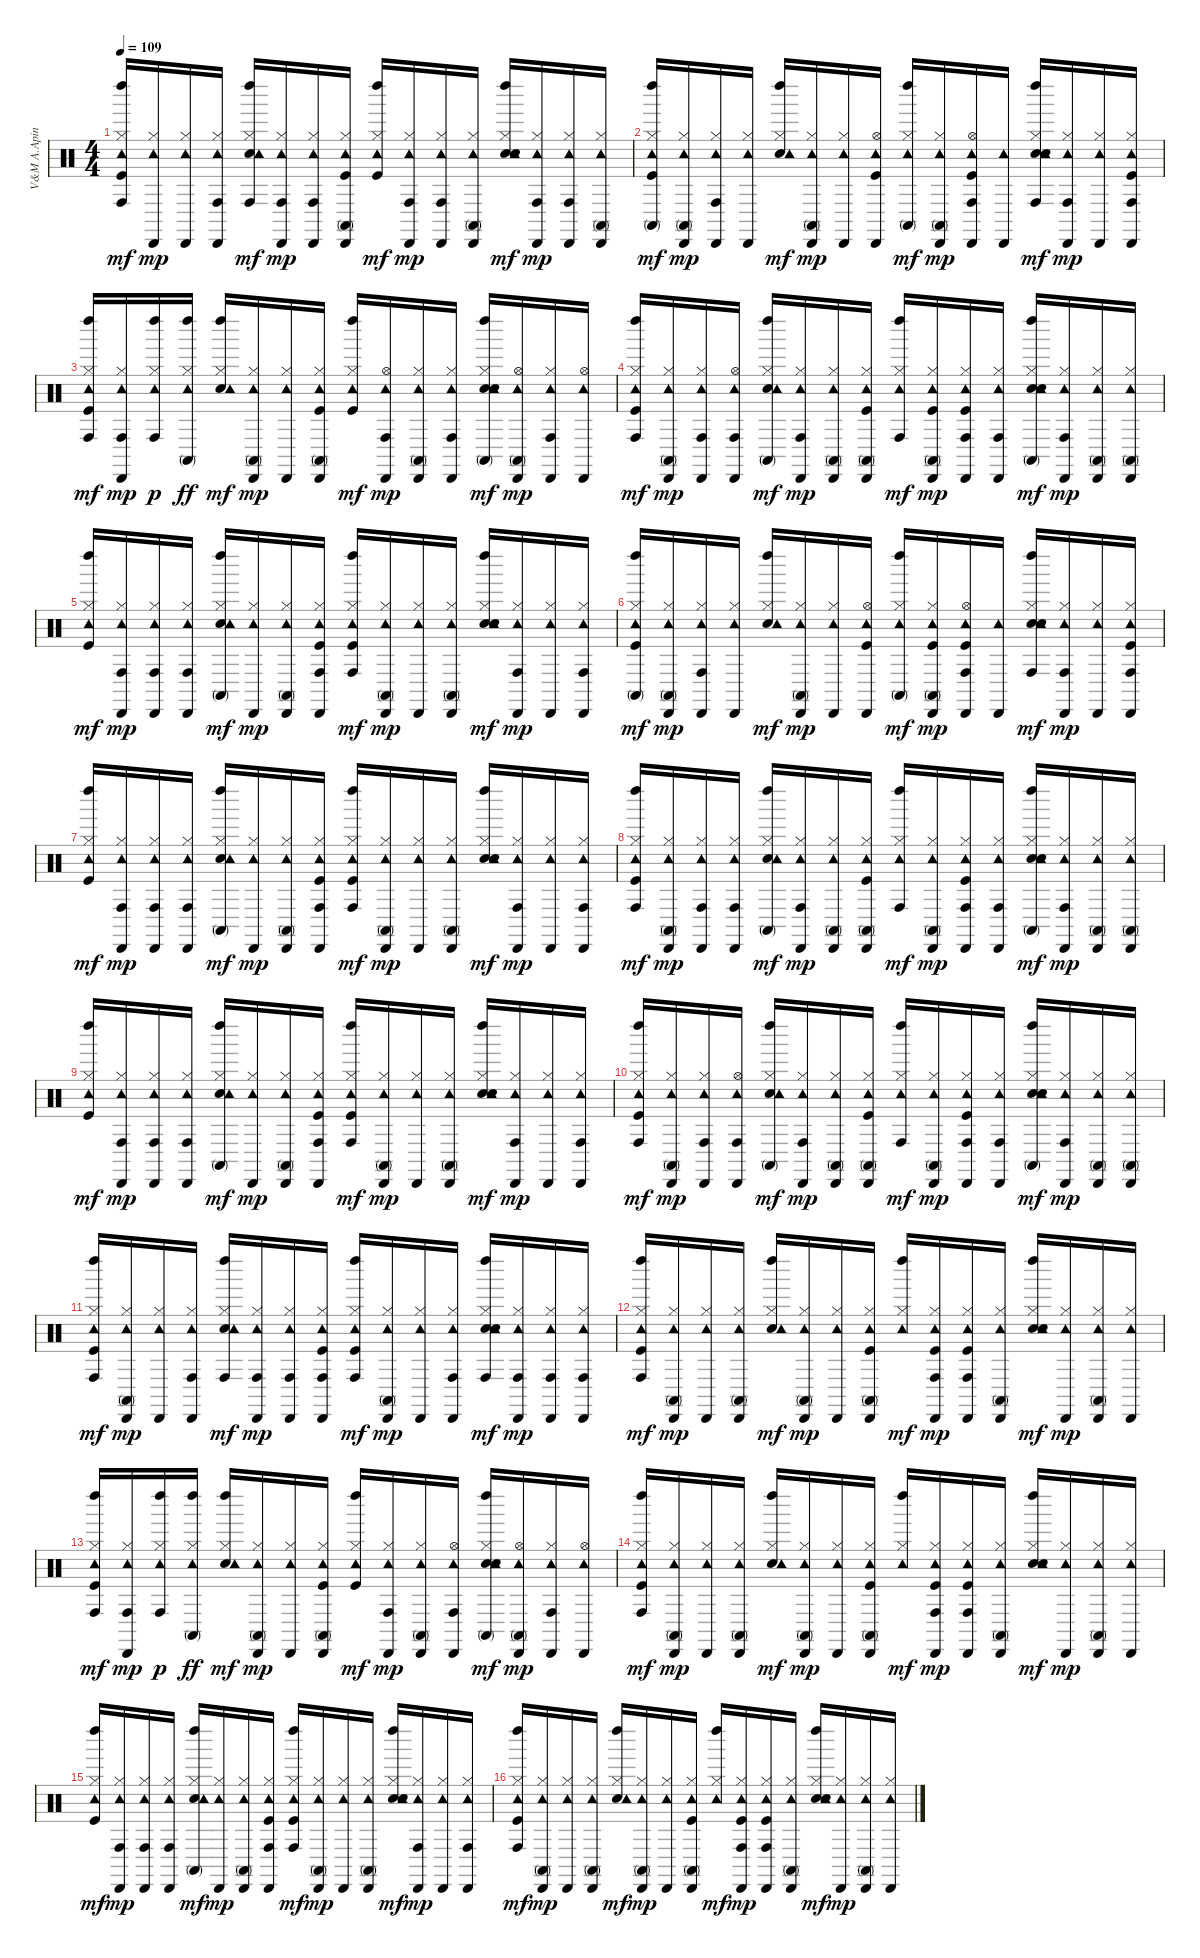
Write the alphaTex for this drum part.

\track ("V&M A.Apin" "V&M A.Apin") {instrument percussion}
\staff {score}
\articulation defaults
\ts (4 4)
\tempo 109
\clef neutral
\ks c
("Kick (hit)" "Hi-Hat (closed)" "Conga high (hit)" "Tambourine (hit)" "Left Maraca (hit)").16{dy mf} ("Hi-Hat (closed)" "Tambourine (hit)" "Cabasa (hit)").16{dy mp} ("Hi-Hat (closed)" "Tambourine (hit)" "Cabasa (hit)").16 ("Hi-Hat (closed)" "Conga high (hit)" "Tambourine (hit)" "Cabasa (hit)").16 ("Snare (hit) 2" "Hi-Hat (closed)" "Conga high (hit)" "Tambourine (hit)" "Left Maraca (hit)").16{dy mf} ("Hi-Hat (closed)" "Conga high (hit)" "Tambourine (hit)" "Cabasa (hit)").16{dy mp} ("Hi-Hat (closed)" "Conga high (hit)" "Tambourine (hit)" "Cabasa (hit)").16 ("Kick (hit)" "Hi-Hat (closed)" "Conga high (mute)" "Tambourine (hit)" "Cabasa (hit)").16 ("Kick (hit)" "Hi-Hat (closed)" "Tambourine (hit)" "Left Maraca (hit)").16{dy mf} ("Hi-Hat (closed)" "Conga high (hit)" "Tambourine (hit)" "Cabasa (hit)").16{dy mp} ("Hi-Hat (closed)" "Conga high (hit)" "Tambourine (hit)" "Cabasa (hit)").16 ("Hi-Hat (closed)" "Conga high (mute)" "Tambourine (hit)" "Cabasa (hit)").16 ("Snare (hit) 2" "Hi-Hat (closed)" "Tambourine (hit)" "Hand Clap (hit)" "Left Maraca (hit)").16{dy mf} ("Hi-Hat (closed)" "Conga high (hit)" "Tambourine (hit)" "Cabasa (hit)").16{dy mp} ("Hi-Hat (closed)" "Conga high (hit)" "Tambourine (hit)" "Cabasa (hit)").16 ("Hi-Hat (closed)" "Conga high (mute)" "Tambourine (hit)" "Cabasa (hit)").16 |
("Kick (hit)" "Hi-Hat (closed)" "Conga high (mute)" "Tambourine (hit)" "Left Maraca (hit)").16{dy mf} ("Hi-Hat (closed)" "Conga high (mute)" "Tambourine (hit)" "Cabasa (hit)").16{dy mp} ("Hi-Hat (closed)" "Conga high (hit)" "Tambourine (hit)" "Cabasa (hit)").16 ("Hi-Hat (closed)" "Tambourine (hit)" "Cabasa (hit)").16 ("Snare (hit) 2" "Hi-Hat (closed)" "Tambourine (hit)" "Left Maraca (hit)").16{dy mf} ("Hi-Hat (closed)" "Conga high (mute)" "Tambourine (hit)" "Cabasa (hit)").16{dy mp} ("Hi-Hat (closed)" "Tambourine (hit)" "Cabasa (hit)").16 ("Kick (hit)" "Hi-Hat (open)" "Tambourine (hit)" "Cabasa (hit)").16 ("Hi-Hat (closed)" "Conga high (mute)" "Tambourine (hit)" "Left Maraca (hit)").16{dy mf} ("Hi-Hat (closed)" "Conga high (mute)" "Tambourine (hit)" "Cabasa (hit)").16{dy mp} ("Kick (hit)" "Hi-Hat (open)" "Conga high (hit)" "Tambourine (hit)" "Cabasa (hit)").16 ("Tambourine (hit)" "Cabasa (hit)").16 ("Snare (hit) 2" "Hi-Hat (closed)" "Conga high (hit)" "Tambourine (hit)" "Hand Clap (hit)" "Left Maraca (hit)").16{dy mf} ("Hi-Hat (closed)" "Conga high (hit)" "Tambourine (hit)" "Cabasa (hit)").16{dy mp} ("Hi-Hat (closed)" "Tambourine (hit)" "Cabasa (hit)").16 ("Kick (hit)" "Hi-Hat (closed)" "Conga high (hit)" "Tambourine (hit)" "Cabasa (hit)").16 |
("Kick (hit)" "Hi-Hat (closed)" "Conga high (hit)" "Tambourine (hit)" "Left Maraca (hit)").16{dy mf} ("Hi-Hat (closed)" "Conga high (hit)" "Tambourine (hit)" "Cabasa (hit)").16{dy mp} ("Hi-Hat (closed)" "Conga high (hit)" "Tambourine (hit)" "Left Maraca (hit)").16{dy p} ("Hi-Hat (closed)" "Conga high (mute)" "Tambourine (hit)" "Left Maraca (hit)").16{dy ff} ("Snare (hit) 2" "Hi-Hat (closed)" "Tambourine (hit)" "Left Maraca (hit)").16{dy mf} ("Hi-Hat (closed)" "Conga high (mute)" "Tambourine (hit)" "Cabasa (hit)").16{dy mp} ("Hi-Hat (closed)" "Tambourine (hit)" "Cabasa (hit)").16 ("Kick (hit)" "Hi-Hat (closed)" "Conga high (mute)" "Tambourine (hit)" "Cabasa (hit)").16 ("Kick (hit)" "Hi-Hat (closed)" "Tambourine (hit)" "Left Maraca (hit)").16{dy mf} ("Hi-Hat (open)" "Conga high (hit)" "Tambourine (hit)" "Cabasa (hit)").16{dy mp} ("Hi-Hat (closed)" "Conga high (mute)" "Tambourine (hit)" "Cabasa (hit)").16 ("Hi-Hat (closed)" "Conga high (hit)" "Tambourine (hit)" "Cabasa (hit)").16 ("Snare (hit) 2" "Hi-Hat (closed)" "Conga high (mute)" "Tambourine (hit)" "Hand Clap (hit)" "Left Maraca (hit)").16{dy mf} ("Hi-Hat (open)" "Conga high (mute)" "Tambourine (hit)" "Cabasa (hit)").16{dy mp} ("Hi-Hat (closed)" "Conga high (hit)" "Tambourine (hit)" "Cabasa (hit)").16 ("Hi-Hat (open)" "Tambourine (hit)" "Cabasa (hit)").16 |
("Kick (hit)" "Hi-Hat (closed)" "Conga high (hit)" "Tambourine (hit)" "Left Maraca (hit)").16{dy mf} ("Hi-Hat (closed)" "Conga high (mute)" "Tambourine (hit)" "Cabasa (hit)").16{dy mp} ("Hi-Hat (closed)" "Conga high (hit)" "Tambourine (hit)" "Cabasa (hit)").16 ("Hi-Hat (open)" "Conga high (hit)" "Tambourine (hit)" "Cabasa (hit)").16 ("Snare (hit) 2" "Hi-Hat (closed)" "Conga high (mute)" "Tambourine (hit)" "Left Maraca (hit)").16{dy mf} ("Hi-Hat (closed)" "Conga high (hit)" "Tambourine (hit)" "Cabasa (hit)").16{dy mp} ("Hi-Hat (closed)" "Conga high (mute)" "Tambourine (hit)" "Cabasa (hit)").16 ("Kick (hit)" "Hi-Hat (closed)" "Conga high (mute)" "Tambourine (hit)" "Cabasa (hit)").16 ("Hi-Hat (closed)" "Conga high (hit)" "Tambourine (hit)" "Left Maraca (hit)").16{dy mf} ("Kick (hit)" "Hi-Hat (closed)" "Conga high (mute)" "Tambourine (hit)" "Cabasa (hit)").16{dy mp} ("Kick (hit)" "Hi-Hat (closed)" "Conga high (hit)" "Tambourine (hit)" "Cabasa (hit)").16 ("Hi-Hat (closed)" "Conga high (hit)" "Tambourine (hit)" "Cabasa (hit)").16 ("Snare (hit) 2" "Hi-Hat (closed)" "Conga high (mute)" "Tambourine (hit)" "Hand Clap (hit)" "Left Maraca (hit)").16{dy mf} ("Hi-Hat (closed)" "Conga high (hit)" "Tambourine (hit)" "Cabasa (hit)").16{dy mp} ("Hi-Hat (closed)" "Conga high (mute)" "Tambourine (hit)" "Cabasa (hit)").16 ("Hi-Hat (closed)" "Conga high (mute)" "Tambourine (hit)" "Cabasa (hit)").16 |
("Kick (hit)" "Hi-Hat (closed)" "Tambourine (hit)" "Left Maraca (hit)").16{dy mf} ("Hi-Hat (closed)" "Conga high (hit)" "Tambourine (hit)" "Cabasa (hit)").16{dy mp} ("Hi-Hat (closed)" "Conga high (hit)" "Tambourine (hit)" "Cabasa (hit)").16 ("Hi-Hat (closed)" "Conga high (hit)" "Tambourine (hit)" "Cabasa (hit)").16 ("Snare (hit) 2" "Hi-Hat (closed)" "Conga high (mute)" "Tambourine (hit)" "Left Maraca (hit)").16{dy mf} ("Hi-Hat (closed)" "Tambourine (hit)" "Cabasa (hit)").16{dy mp} ("Hi-Hat (closed)" "Conga high (mute)" "Tambourine (hit)" "Cabasa (hit)").16 ("Kick (hit)" "Hi-Hat (closed)" "Conga high (hit)" "Tambourine (hit)" "Cabasa (hit)").16 ("Kick (hit)" "Hi-Hat (closed)" "Conga high (hit)" "Tambourine (hit)" "Left Maraca (hit)").16{dy mf} ("Hi-Hat (closed)" "Conga high (mute)" "Tambourine (hit)" "Cabasa (hit)").16{dy mp} ("Hi-Hat (closed)" "Tambourine (hit)" "Cabasa (hit)").16 ("Hi-Hat (closed)" "Conga high (mute)" "Tambourine (hit)" "Cabasa (hit)").16 ("Snare (hit) 2" "Hi-Hat (closed)" "Tambourine (hit)" "Hand Clap (hit)" "Left Maraca (hit)").16{dy mf} ("Hi-Hat (closed)" "Conga high (hit)" "Tambourine (hit)" "Cabasa (hit)").16{dy mp} ("Hi-Hat (closed)" "Tambourine (hit)" "Cabasa (hit)").16 ("Hi-Hat (closed)" "Conga high (hit)" "Tambourine (hit)" "Cabasa (hit)").16 |
("Kick (hit)" "Hi-Hat (closed)" "Conga high (mute)" "Tambourine (hit)" "Left Maraca (hit)").16{dy mf} ("Hi-Hat (closed)" "Conga high (mute)" "Tambourine (hit)" "Cabasa (hit)").16{dy mp} ("Hi-Hat (closed)" "Conga high (hit)" "Tambourine (hit)" "Cabasa (hit)").16 ("Hi-Hat (closed)" "Tambourine (hit)" "Cabasa (hit)").16 ("Snare (hit) 2" "Hi-Hat (closed)" "Tambourine (hit)" "Left Maraca (hit)").16{dy mf} ("Hi-Hat (closed)" "Conga high (mute)" "Tambourine (hit)" "Cabasa (hit)").16{dy mp} ("Hi-Hat (closed)" "Tambourine (hit)" "Cabasa (hit)").16 ("Kick (hit)" "Hi-Hat (open)" "Tambourine (hit)" "Cabasa (hit)").16 ("Hi-Hat (closed)" "Conga high (mute)" "Tambourine (hit)" "Left Maraca (hit)").16{dy mf} ("Kick (hit)" "Hi-Hat (closed)" "Conga high (mute)" "Tambourine (hit)" "Cabasa (hit)").16{dy mp} ("Kick (hit)" "Hi-Hat (open)" "Conga high (hit)" "Tambourine (hit)" "Cabasa (hit)").16 ("Tambourine (hit)" "Cabasa (hit)").16 ("Snare (hit) 2" "Hi-Hat (closed)" "Conga high (hit)" "Tambourine (hit)" "Hand Clap (hit)" "Left Maraca (hit)").16{dy mf} ("Hi-Hat (closed)" "Conga high (hit)" "Tambourine (hit)" "Cabasa (hit)").16{dy mp} ("Hi-Hat (closed)" "Tambourine (hit)" "Cabasa (hit)").16 ("Kick (hit)" "Hi-Hat (closed)" "Conga high (hit)" "Tambourine (hit)" "Cabasa (hit)").16 |
("Kick (hit)" "Hi-Hat (closed)" "Tambourine (hit)" "Left Maraca (hit)").16{dy mf} ("Hi-Hat (closed)" "Conga high (hit)" "Tambourine (hit)" "Cabasa (hit)").16{dy mp} ("Hi-Hat (closed)" "Conga high (hit)" "Tambourine (hit)" "Cabasa (hit)").16 ("Hi-Hat (closed)" "Conga high (hit)" "Tambourine (hit)" "Cabasa (hit)").16 ("Snare (hit) 2" "Hi-Hat (closed)" "Conga high (mute)" "Tambourine (hit)" "Left Maraca (hit)").16{dy mf} ("Hi-Hat (closed)" "Tambourine (hit)" "Cabasa (hit)").16{dy mp} ("Hi-Hat (closed)" "Conga high (mute)" "Tambourine (hit)" "Cabasa (hit)").16 ("Kick (hit)" "Hi-Hat (closed)" "Conga high (hit)" "Tambourine (hit)" "Cabasa (hit)").16 ("Kick (hit)" "Hi-Hat (closed)" "Conga high (hit)" "Tambourine (hit)" "Left Maraca (hit)").16{dy mf} ("Hi-Hat (closed)" "Conga high (mute)" "Tambourine (hit)" "Cabasa (hit)").16{dy mp} ("Hi-Hat (closed)" "Tambourine (hit)" "Cabasa (hit)").16 ("Hi-Hat (closed)" "Conga high (mute)" "Tambourine (hit)" "Cabasa (hit)").16 ("Snare (hit) 2" "Hi-Hat (closed)" "Tambourine (hit)" "Hand Clap (hit)" "Left Maraca (hit)").16{dy mf} ("Hi-Hat (closed)" "Conga high (hit)" "Tambourine (hit)" "Cabasa (hit)").16{dy mp} ("Hi-Hat (closed)" "Tambourine (hit)" "Cabasa (hit)").16 ("Hi-Hat (closed)" "Conga high (hit)" "Tambourine (hit)" "Cabasa (hit)").16 |
("Kick (hit)" "Hi-Hat (closed)" "Conga high (hit)" "Tambourine (hit)" "Left Maraca (hit)").16{dy mf} ("Hi-Hat (closed)" "Conga high (mute)" "Tambourine (hit)" "Cabasa (hit)").16{dy mp} ("Hi-Hat (closed)" "Conga high (hit)" "Tambourine (hit)" "Cabasa (hit)").16 ("Hi-Hat (closed)" "Conga high (hit)" "Tambourine (hit)" "Cabasa (hit)").16 ("Snare (hit) 2" "Hi-Hat (closed)" "Conga high (mute)" "Tambourine (hit)" "Left Maraca (hit)").16{dy mf} ("Hi-Hat (closed)" "Conga high (hit)" "Tambourine (hit)" "Cabasa (hit)").16{dy mp} ("Hi-Hat (closed)" "Conga high (mute)" "Tambourine (hit)" "Cabasa (hit)").16 ("Kick (hit)" "Hi-Hat (closed)" "Conga high (mute)" "Tambourine (hit)" "Cabasa (hit)").16 ("Hi-Hat (closed)" "Conga high (hit)" "Tambourine (hit)" "Left Maraca (hit)").16{dy mf} ("Hi-Hat (closed)" "Conga high (mute)" "Tambourine (hit)" "Cabasa (hit)").16{dy mp} ("Kick (hit)" "Hi-Hat (closed)" "Conga high (hit)" "Tambourine (hit)" "Cabasa (hit)").16 ("Hi-Hat (closed)" "Conga high (hit)" "Tambourine (hit)" "Cabasa (hit)").16 ("Snare (hit) 2" "Hi-Hat (closed)" "Conga high (mute)" "Tambourine (hit)" "Hand Clap (hit)" "Left Maraca (hit)").16{dy mf} ("Hi-Hat (closed)" "Conga high (hit)" "Tambourine (hit)" "Cabasa (hit)").16{dy mp} ("Hi-Hat (closed)" "Conga high (mute)" "Tambourine (hit)" "Cabasa (hit)").16 ("Hi-Hat (closed)" "Conga high (mute)" "Tambourine (hit)" "Cabasa (hit)").16 |
("Kick (hit)" "Hi-Hat (closed)" "Tambourine (hit)" "Left Maraca (hit)").16{dy mf} ("Hi-Hat (closed)" "Conga high (hit)" "Tambourine (hit)" "Cabasa (hit)").16{dy mp} ("Hi-Hat (closed)" "Conga high (hit)" "Tambourine (hit)" "Cabasa (hit)").16 ("Hi-Hat (closed)" "Conga high (hit)" "Tambourine (hit)" "Cabasa (hit)").16 ("Snare (hit) 2" "Hi-Hat (closed)" "Conga high (mute)" "Tambourine (hit)" "Left Maraca (hit)").16{dy mf} ("Hi-Hat (closed)" "Tambourine (hit)" "Cabasa (hit)").16{dy mp} ("Hi-Hat (closed)" "Conga high (mute)" "Tambourine (hit)" "Cabasa (hit)").16 ("Kick (hit)" "Hi-Hat (closed)" "Conga high (hit)" "Tambourine (hit)" "Cabasa (hit)").16 ("Kick (hit)" "Hi-Hat (closed)" "Conga high (hit)" "Tambourine (hit)" "Left Maraca (hit)").16{dy mf} ("Hi-Hat (closed)" "Conga high (mute)" "Tambourine (hit)" "Cabasa (hit)").16{dy mp} ("Hi-Hat (closed)" "Tambourine (hit)" "Cabasa (hit)").16 ("Hi-Hat (closed)" "Conga high (mute)" "Tambourine (hit)" "Cabasa (hit)").16 ("Snare (hit) 2" "Hi-Hat (closed)" "Tambourine (hit)" "Hand Clap (hit)" "Left Maraca (hit)").16{dy mf} ("Hi-Hat (closed)" "Conga high (hit)" "Tambourine (hit)" "Cabasa (hit)").16{dy mp} ("Hi-Hat (closed)" "Tambourine (hit)" "Cabasa (hit)").16 ("Hi-Hat (closed)" "Conga high (hit)" "Tambourine (hit)" "Cabasa (hit)").16 |
("Kick (hit)" "Hi-Hat (closed)" "Conga high (hit)" "Tambourine (hit)" "Left Maraca (hit)").16{dy mf} ("Hi-Hat (closed)" "Conga high (mute)" "Tambourine (hit)" "Cabasa (hit)").16{dy mp} ("Hi-Hat (closed)" "Conga high (hit)" "Tambourine (hit)" "Cabasa (hit)").16 ("Hi-Hat (open)" "Conga high (hit)" "Tambourine (hit)" "Cabasa (hit)").16 ("Snare (hit) 2" "Hi-Hat (closed)" "Conga high (mute)" "Tambourine (hit)" "Left Maraca (hit)").16{dy mf} ("Hi-Hat (closed)" "Conga high (hit)" "Tambourine (hit)" "Cabasa (hit)").16{dy mp} ("Hi-Hat (closed)" "Conga high (mute)" "Tambourine (hit)" "Cabasa (hit)").16 ("Kick (hit)" "Hi-Hat (closed)" "Conga high (mute)" "Tambourine (hit)" "Cabasa (hit)").16 ("Hi-Hat (closed)" "Conga high (hit)" "Tambourine (hit)" "Left Maraca (hit)").16{dy mf} ("Hi-Hat (closed)" "Conga high (mute)" "Tambourine (hit)" "Cabasa (hit)").16{dy mp} ("Kick (hit)" "Hi-Hat (closed)" "Conga high (hit)" "Tambourine (hit)" "Cabasa (hit)").16 ("Hi-Hat (closed)" "Conga high (hit)" "Tambourine (hit)" "Cabasa (hit)").16 ("Snare (hit) 2" "Hi-Hat (closed)" "Conga high (mute)" "Tambourine (hit)" "Hand Clap (hit)" "Left Maraca (hit)").16{dy mf} ("Hi-Hat (closed)" "Conga high (hit)" "Tambourine (hit)" "Cabasa (hit)").16{dy mp} ("Hi-Hat (closed)" "Conga high (mute)" "Tambourine (hit)" "Cabasa (hit)").16 ("Hi-Hat (closed)" "Conga high (mute)" "Tambourine (hit)" "Cabasa (hit)").16 |
("Kick (hit)" "Hi-Hat (closed)" "Conga high (hit)" "Tambourine (hit)" "Left Maraca (hit)").16{dy mf} ("Hi-Hat (closed)" "Conga high (mute)" "Tambourine (hit)" "Cabasa (hit)").16{dy mp} ("Hi-Hat (closed)" "Tambourine (hit)" "Cabasa (hit)").16 ("Hi-Hat (closed)" "Conga high (hit)" "Tambourine (hit)" "Cabasa (hit)").16 ("Snare (hit) 2" "Hi-Hat (closed)" "Conga high (hit)" "Tambourine (hit)" "Left Maraca (hit)").16{dy mf} ("Hi-Hat (closed)" "Conga high (hit)" "Tambourine (hit)" "Cabasa (hit)").16{dy mp} ("Hi-Hat (closed)" "Conga high (hit)" "Tambourine (hit)" "Cabasa (hit)").16 ("Kick (hit)" "Hi-Hat (closed)" "Conga high (hit)" "Tambourine (hit)" "Cabasa (hit)").16 ("Kick (hit)" "Hi-Hat (closed)" "Conga high (hit)" "Tambourine (hit)" "Left Maraca (hit)").16{dy mf} ("Hi-Hat (closed)" "Conga high (mute)" "Tambourine (hit)" "Cabasa (hit)").16{dy mp} ("Hi-Hat (closed)" "Tambourine (hit)" "Cabasa (hit)").16 ("Hi-Hat (closed)" "Conga high (hit)" "Tambourine (hit)" "Cabasa (hit)").16 ("Snare (hit) 2" "Hi-Hat (closed)" "Conga high (hit)" "Tambourine (hit)" "Hand Clap (hit)" "Left Maraca (hit)").16{dy mf} ("Hi-Hat (closed)" "Conga high (hit)" "Tambourine (hit)" "Cabasa (hit)").16{dy mp} ("Hi-Hat (closed)" "Conga high (hit)" "Tambourine (hit)" "Cabasa (hit)").16 ("Hi-Hat (closed)" "Conga high (hit)" "Tambourine (hit)" "Cabasa (hit)").16 |
("Kick (hit)" "Hi-Hat (closed)" "Conga high (hit)" "Tambourine (hit)" "Left Maraca (hit)").16{dy mf} ("Hi-Hat (closed)" "Conga high (mute)" "Tambourine (hit)" "Cabasa (hit)").16{dy mp} ("Hi-Hat (closed)" "Tambourine (hit)" "Cabasa (hit)").16 ("Hi-Hat (closed)" "Conga high (mute)" "Tambourine (hit)" "Cabasa (hit)").16 ("Snare (hit) 2" "Hi-Hat (closed)" "Tambourine (hit)" "Left Maraca (hit)").16{dy mf} ("Hi-Hat (closed)" "Conga high (mute)" "Tambourine (hit)" "Cabasa (hit)").16{dy mp} ("Hi-Hat (closed)" "Tambourine (hit)" "Cabasa (hit)").16 ("Kick (hit)" "Hi-Hat (closed)" "Conga high (mute)" "Tambourine (hit)" "Cabasa (hit)").16 ("Hi-Hat (closed)" "Tambourine (hit)" "Left Maraca (hit)").16{dy mf} ("Kick (hit)" "Hi-Hat (closed)" "Conga high (hit)" "Tambourine (hit)" "Cabasa (hit)").16{dy mp} ("Kick (hit)" "Hi-Hat (closed)" "Conga high (hit)" "Tambourine (hit)" "Cabasa (hit)").16 ("Hi-Hat (closed)" "Conga high (mute)" "Tambourine (hit)" "Cabasa (hit)").16 ("Snare (hit) 2" "Hi-Hat (closed)" "Tambourine (hit)" "Hand Clap (hit)" "Left Maraca (hit)").16{dy mf} ("Hi-Hat (closed)" "Tambourine (hit)" "Cabasa (hit)").16{dy mp} ("Hi-Hat (closed)" "Conga high (mute)" "Tambourine (hit)" "Cabasa (hit)").16 ("Hi-Hat (closed)" "Tambourine (hit)" "Cabasa (hit)").16 |
("Kick (hit)" "Hi-Hat (closed)" "Conga high (hit)" "Tambourine (hit)" "Left Maraca (hit)").16{dy mf} ("Hi-Hat (closed)" "Conga high (hit)" "Tambourine (hit)" "Cabasa (hit)").16{dy mp} ("Hi-Hat (closed)" "Conga high (hit)" "Tambourine (hit)" "Left Maraca (hit)").16{dy p} ("Hi-Hat (closed)" "Conga high (mute)" "Tambourine (hit)" "Left Maraca (hit)").16{dy ff} ("Snare (hit) 2" "Hi-Hat (closed)" "Tambourine (hit)" "Left Maraca (hit)").16{dy mf} ("Hi-Hat (closed)" "Conga high (mute)" "Tambourine (hit)" "Cabasa (hit)").16{dy mp} ("Hi-Hat (closed)" "Tambourine (hit)" "Cabasa (hit)").16 ("Kick (hit)" "Hi-Hat (closed)" "Conga high (mute)" "Tambourine (hit)" "Cabasa (hit)").16 ("Kick (hit)" "Hi-Hat (closed)" "Tambourine (hit)" "Left Maraca (hit)").16{dy mf} ("Hi-Hat (closed)" "Conga high (hit)" "Tambourine (hit)" "Cabasa (hit)").16{dy mp} ("Hi-Hat (closed)" "Conga high (mute)" "Tambourine (hit)" "Cabasa (hit)").16 ("Hi-Hat (open)" "Conga high (hit)" "Tambourine (hit)" "Cabasa (hit)").16 ("Snare (hit) 2" "Hi-Hat (closed)" "Conga high (mute)" "Tambourine (hit)" "Hand Clap (hit)" "Left Maraca (hit)").16{dy mf} ("Hi-Hat (open)" "Conga high (mute)" "Tambourine (hit)" "Cabasa (hit)").16{dy mp} ("Hi-Hat (closed)" "Conga high (hit)" "Tambourine (hit)" "Cabasa (hit)").16 ("Hi-Hat (open)" "Tambourine (hit)" "Cabasa (hit)").16 |
("Kick (hit)" "Hi-Hat (closed)" "Conga high (hit)" "Tambourine (hit)" "Left Maraca (hit)").16{dy mf} ("Hi-Hat (closed)" "Conga high (mute)" "Tambourine (hit)" "Cabasa (hit)").16{dy mp} ("Hi-Hat (closed)" "Tambourine (hit)" "Cabasa (hit)").16 ("Hi-Hat (closed)" "Conga high (mute)" "Tambourine (hit)" "Cabasa (hit)").16 ("Snare (hit) 2" "Hi-Hat (closed)" "Tambourine (hit)" "Left Maraca (hit)").16{dy mf} ("Hi-Hat (closed)" "Conga high (mute)" "Tambourine (hit)" "Cabasa (hit)").16{dy mp} ("Hi-Hat (closed)" "Tambourine (hit)" "Cabasa (hit)").16 ("Kick (hit)" "Hi-Hat (closed)" "Conga high (mute)" "Tambourine (hit)" "Cabasa (hit)").16 ("Hi-Hat (closed)" "Tambourine (hit)" "Left Maraca (hit)").16{dy mf} ("Kick (hit)" "Hi-Hat (closed)" "Conga high (hit)" "Tambourine (hit)" "Cabasa (hit)").16{dy mp} ("Kick (hit)" "Hi-Hat (closed)" "Conga high (hit)" "Tambourine (hit)" "Cabasa (hit)").16 ("Hi-Hat (closed)" "Conga high (mute)" "Tambourine (hit)" "Cabasa (hit)").16 ("Snare (hit) 2" "Hi-Hat (closed)" "Tambourine (hit)" "Hand Clap (hit)" "Left Maraca (hit)").16{dy mf} ("Hi-Hat (closed)" "Tambourine (hit)" "Cabasa (hit)").16{dy mp} ("Hi-Hat (closed)" "Conga high (mute)" "Tambourine (hit)" "Cabasa (hit)").16 ("Hi-Hat (closed)" "Tambourine (hit)" "Cabasa (hit)").16 |
("Kick (hit)" "Hi-Hat (closed)" "Tambourine (hit)" "Left Maraca (hit)").16{dy mf} ("Hi-Hat (closed)" "Conga high (hit)" "Tambourine (hit)" "Cabasa (hit)").16{dy mp} ("Hi-Hat (closed)" "Conga high (hit)" "Tambourine (hit)" "Cabasa (hit)").16 ("Hi-Hat (closed)" "Conga high (hit)" "Tambourine (hit)" "Cabasa (hit)").16 ("Snare (hit) 2" "Hi-Hat (closed)" "Conga high (mute)" "Tambourine (hit)" "Left Maraca (hit)").16{dy mf} ("Hi-Hat (closed)" "Tambourine (hit)" "Cabasa (hit)").16{dy mp} ("Hi-Hat (closed)" "Conga high (mute)" "Tambourine (hit)" "Cabasa (hit)").16 ("Kick (hit)" "Hi-Hat (closed)" "Conga high (hit)" "Tambourine (hit)" "Cabasa (hit)").16 ("Kick (hit)" "Hi-Hat (closed)" "Conga high (hit)" "Tambourine (hit)" "Left Maraca (hit)").16{dy mf} ("Hi-Hat (closed)" "Conga high (mute)" "Tambourine (hit)" "Cabasa (hit)").16{dy mp} ("Hi-Hat (closed)" "Tambourine (hit)" "Cabasa (hit)").16 ("Hi-Hat (closed)" "Conga high (mute)" "Tambourine (hit)" "Cabasa (hit)").16 ("Snare (hit) 2" "Hi-Hat (closed)" "Tambourine (hit)" "Hand Clap (hit)" "Left Maraca (hit)").16{dy mf} ("Hi-Hat (closed)" "Conga high (hit)" "Tambourine (hit)" "Cabasa (hit)").16{dy mp} ("Hi-Hat (closed)" "Tambourine (hit)" "Cabasa (hit)").16 ("Hi-Hat (closed)" "Conga high (hit)" "Tambourine (hit)" "Cabasa (hit)").16 |
("Kick (hit)" "Hi-Hat (closed)" "Conga high (hit)" "Tambourine (hit)" "Left Maraca (hit)").16{dy mf} ("Hi-Hat (closed)" "Conga high (mute)" "Tambourine (hit)" "Cabasa (hit)").16{dy mp} ("Hi-Hat (closed)" "Tambourine (hit)" "Cabasa (hit)").16 ("Hi-Hat (closed)" "Conga high (mute)" "Tambourine (hit)" "Cabasa (hit)").16 ("Snare (hit) 2" "Hi-Hat (closed)" "Tambourine (hit)" "Left Maraca (hit)").16{dy mf} ("Hi-Hat (closed)" "Conga high (mute)" "Tambourine (hit)" "Cabasa (hit)").16{dy mp} ("Hi-Hat (closed)" "Tambourine (hit)" "Cabasa (hit)").16 ("Kick (hit)" "Hi-Hat (closed)" "Conga high (mute)" "Tambourine (hit)" "Cabasa (hit)").16 ("Hi-Hat (closed)" "Tambourine (hit)" "Left Maraca (hit)").16{dy mf} ("Kick (hit)" "Hi-Hat (closed)" "Conga high (hit)" "Tambourine (hit)" "Cabasa (hit)").16{dy mp} ("Kick (hit)" "Hi-Hat (closed)" "Conga high (hit)" "Tambourine (hit)" "Cabasa (hit)").16 ("Hi-Hat (closed)" "Conga high (mute)" "Tambourine (hit)" "Cabasa (hit)").16 ("Snare (hit) 2" "Hi-Hat (closed)" "Tambourine (hit)" "Hand Clap (hit)" "Left Maraca (hit)").16{dy mf} ("Hi-Hat (closed)" "Tambourine (hit)" "Cabasa (hit)").16{dy mp} ("Hi-Hat (closed)" "Conga high (mute)" "Tambourine (hit)" "Cabasa (hit)").16 ("Hi-Hat (closed)" "Tambourine (hit)" "Cabasa (hit)").16
